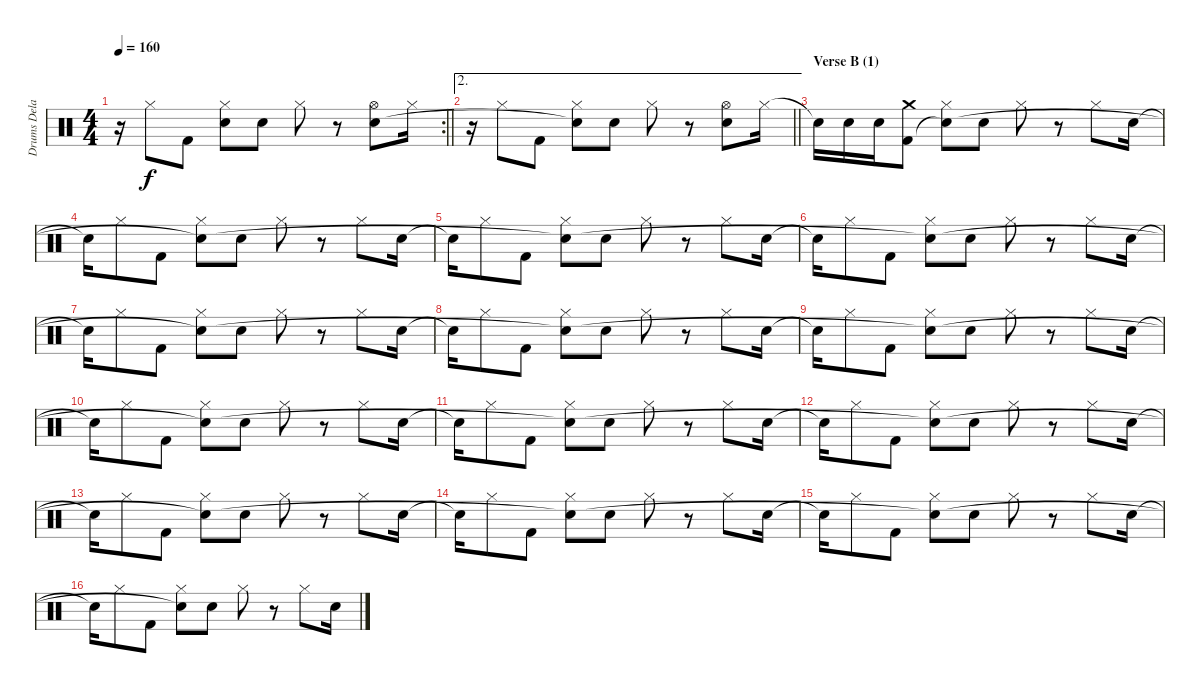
\track ("Drums Delay 2" "Drums Dela") {instrument percussion}
\staff {score}
\articulation defaults
\rc 2
\ts (4 4)
\tempo 160
\clef neutral
\barLineRight lightlight
\ks c
r.16{dy f} "Hi-Hat (closed)".8 "Kick (hit) 2".8 ("Hi-Hat (closed)" "Snare (hit)"{t}).8 "Electric Snare (hit)".8 "Hi-Hat (closed)".8 r.8 ("Hi-Hat (open)" "Electric Snare (hit)").8 "Hi-Hat (closed)".16 |
\ae 2
\barLineRight lightlight
r.16 "Hi-Hat (closed)".8 "Kick (hit) 2".8 ("Hi-Hat (closed)" "Snare (hit)"{t}).8 "Electric Snare (hit)".8 "Hi-Hat (closed)".8 r.8 ("Hi-Hat (open)" "Electric Snare (hit)").8 "Hi-Hat (closed)".16 |
\section ("" "Verse B (1)")
"Snare (hit)"{t}.16 "Electric Snare (hit)".16 "Electric Snare (hit)".16 ("Crash medium (hit)" "Kick (hit) 2").8 ("Hi-Hat (closed)" "Snare (hit)"{t}).8 "Electric Snare (hit)".8 "Hi-Hat (closed)".8 r.8 "Hi-Hat (closed)".8 "Electric Snare (hit)".16 |
"Snare (hit)"{t}.16 "Hi-Hat (closed)".8 "Kick (hit) 2".8 ("Hi-Hat (closed)" "Snare (hit)"{t}).8 "Electric Snare (hit)".8 "Hi-Hat (closed)".8 r.8 "Hi-Hat (closed)".8 "Electric Snare (hit)".16 |
"Snare (hit)"{t}.16 "Hi-Hat (closed)".8 "Kick (hit) 2".8 ("Hi-Hat (closed)" "Snare (hit)"{t}).8 "Electric Snare (hit)".8 "Hi-Hat (closed)".8 r.8 "Hi-Hat (closed)".8 "Electric Snare (hit)".16 |
"Snare (hit)"{t}.16 "Hi-Hat (closed)".8 "Kick (hit) 2".8 ("Hi-Hat (closed)" "Snare (hit)"{t}).8 "Electric Snare (hit)".8 "Hi-Hat (closed)".8 r.8 "Hi-Hat (closed)".8 "Electric Snare (hit)".16 |
"Snare (hit)"{t}.16 "Hi-Hat (closed)".8 "Kick (hit) 2".8 ("Hi-Hat (closed)" "Snare (hit)"{t}).8 "Electric Snare (hit)".8 "Hi-Hat (closed)".8 r.8 "Hi-Hat (closed)".8 "Electric Snare (hit)".16 |
"Snare (hit)"{t}.16 "Hi-Hat (closed)".8 "Kick (hit) 2".8 ("Hi-Hat (closed)" "Snare (hit)"{t}).8 "Electric Snare (hit)".8 "Hi-Hat (closed)".8 r.8 "Hi-Hat (closed)".8 "Electric Snare (hit)".16 |
"Snare (hit)"{t}.16 "Hi-Hat (closed)".8 "Kick (hit) 2".8 ("Hi-Hat (closed)" "Snare (hit)"{t}).8 "Electric Snare (hit)".8 "Hi-Hat (closed)".8 r.8 "Hi-Hat (closed)".8 "Electric Snare (hit)".16 |
"Snare (hit)"{t}.16 "Hi-Hat (closed)".8 "Kick (hit) 2".8 ("Hi-Hat (closed)" "Snare (hit)"{t}).8 "Electric Snare (hit)".8 "Hi-Hat (closed)".8 r.8 "Hi-Hat (closed)".8 "Electric Snare (hit)".16 |
"Snare (hit)"{t}.16 "Hi-Hat (closed)".8 "Kick (hit) 2".8 ("Hi-Hat (closed)" "Snare (hit)"{t}).8 "Electric Snare (hit)".8 "Hi-Hat (closed)".8 r.8 "Hi-Hat (closed)".8 "Electric Snare (hit)".16 |
"Snare (hit)"{t}.16 "Hi-Hat (closed)".8 "Kick (hit) 2".8 ("Hi-Hat (closed)" "Snare (hit)"{t}).8 "Electric Snare (hit)".8 "Hi-Hat (closed)".8 r.8 "Hi-Hat (closed)".8 "Electric Snare (hit)".16 |
"Snare (hit)"{t}.16 "Hi-Hat (closed)".8 "Kick (hit) 2".8 ("Hi-Hat (closed)" "Snare (hit)"{t}).8 "Electric Snare (hit)".8 "Hi-Hat (closed)".8 r.8 "Hi-Hat (closed)".8 "Electric Snare (hit)".16 |
"Snare (hit)"{t}.16 "Hi-Hat (closed)".8 "Kick (hit) 2".8 ("Hi-Hat (closed)" "Snare (hit)"{t}).8 "Electric Snare (hit)".8 "Hi-Hat (closed)".8 r.8 "Hi-Hat (closed)".8 "Electric Snare (hit)".16 |
"Snare (hit)"{t}.16 "Hi-Hat (closed)".8 "Kick (hit) 2".8 ("Hi-Hat (closed)" "Snare (hit)"{t}).8 "Electric Snare (hit)".8 "Hi-Hat (closed)".8 r.8 "Hi-Hat (closed)".8 "Electric Snare (hit)".16 |
"Snare (hit)"{t}.16 "Hi-Hat (closed)".8 "Kick (hit) 2".8 ("Hi-Hat (closed)" "Snare (hit)"{t}).8 "Electric Snare (hit)".8 "Hi-Hat (closed)".8 r.8 "Hi-Hat (closed)".8 "Electric Snare (hit)".16
